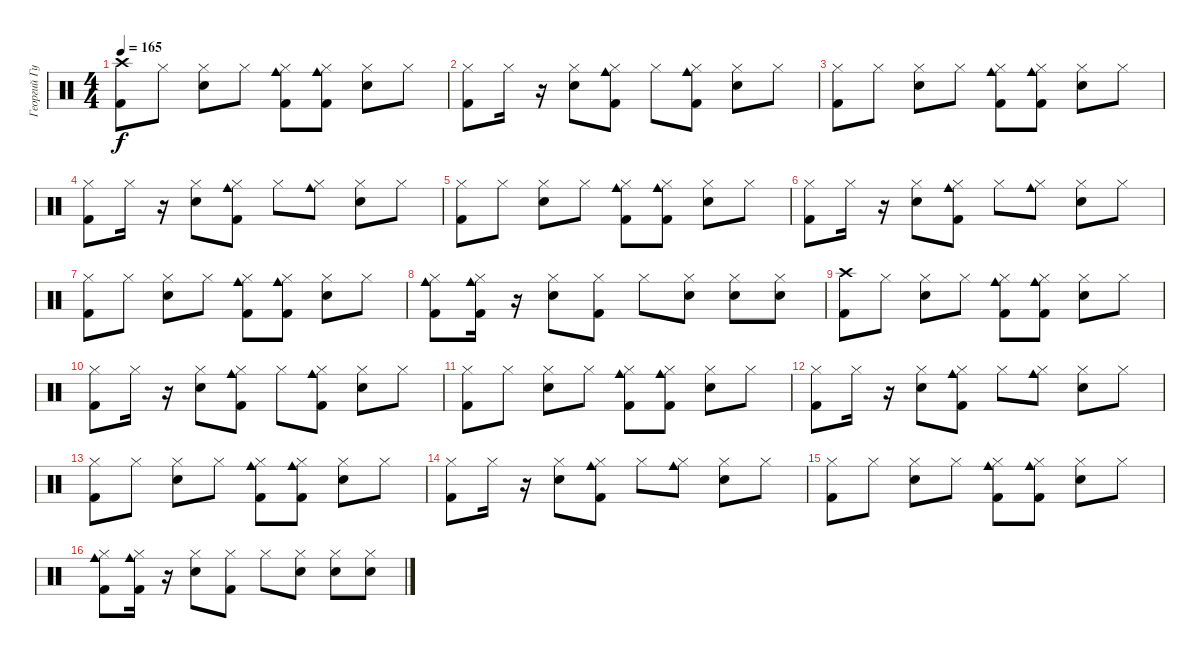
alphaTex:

\track ("Георгий Гурьянов" "Георгий Гу") {instrument percussion}
\staff {score}
\articulation defaults
\ts (4 4)
\tempo 165
\clef neutral
\ks c
("Crash high (hit)" "Kick (hit) 2").8{dy f} "Hi-Hat (closed)".8 ("Hi-Hat (closed)" "Snare (hit) 2").8 "Hi-Hat (closed)".8 ("Hi-Hat (closed)" "Cowbell medium (hit)" "Kick (hit) 2").8 ("Hi-Hat (closed)" "Cowbell medium (hit)" "Kick (hit) 2").8 ("Hi-Hat (closed)" "Snare (hit) 2").8 "Hi-Hat (closed)".8 |
("Hi-Hat (closed)" "Kick (hit) 2").8 "Hi-Hat (closed)".16 r.16 ("Hi-Hat (closed)" "Snare (hit) 2").8 ("Hi-Hat (closed)" "Kick (hit) 2" "Cowbell medium (hit)").8 "Hi-Hat (closed)".8 ("Hi-Hat (closed)" "Kick (hit) 2" "Cowbell medium (hit)").8 ("Hi-Hat (closed)" "Snare (hit) 2").8 "Hi-Hat (closed)".8 |
("Hi-Hat (closed)" "Kick (hit) 2").8 "Hi-Hat (closed)".8 ("Hi-Hat (closed)" "Snare (hit) 2").8 "Hi-Hat (closed)".8 ("Hi-Hat (closed)" "Cowbell medium (hit)" "Kick (hit) 2").8 ("Hi-Hat (closed)" "Cowbell medium (hit)" "Kick (hit) 2").8 ("Hi-Hat (closed)" "Snare (hit) 2").8 "Hi-Hat (closed)".8 |
("Hi-Hat (closed)" "Kick (hit) 2").8 "Hi-Hat (closed)".16 r.16 ("Hi-Hat (closed)" "Snare (hit) 2").8 ("Hi-Hat (closed)" "Kick (hit) 2" "Cowbell medium (hit)").8 "Hi-Hat (closed)".8 ("Hi-Hat (closed)" "Cowbell medium (hit)").8 ("Hi-Hat (closed)" "Snare (hit) 2").8 "Hi-Hat (closed)".8 |
("Hi-Hat (closed)" "Kick (hit) 2").8 "Hi-Hat (closed)".8 ("Hi-Hat (closed)" "Snare (hit) 2").8 "Hi-Hat (closed)".8 ("Hi-Hat (closed)" "Cowbell medium (hit)" "Kick (hit) 2").8 ("Hi-Hat (closed)" "Cowbell medium (hit)" "Kick (hit) 2").8 ("Hi-Hat (closed)" "Snare (hit) 2").8 "Hi-Hat (closed)".8 |
("Hi-Hat (closed)" "Kick (hit) 2").8 "Hi-Hat (closed)".16 r.16 ("Hi-Hat (closed)" "Snare (hit) 2").8 ("Hi-Hat (closed)" "Kick (hit) 2" "Cowbell medium (hit)").8 "Hi-Hat (closed)".8 ("Hi-Hat (closed)" "Cowbell medium (hit)").8 ("Hi-Hat (closed)" "Snare (hit) 2").8 "Hi-Hat (closed)".8 |
("Hi-Hat (closed)" "Kick (hit) 2").8 "Hi-Hat (closed)".8 ("Hi-Hat (closed)" "Snare (hit) 2").8 "Hi-Hat (closed)".8 ("Hi-Hat (closed)" "Cowbell medium (hit)" "Kick (hit) 2").8 ("Hi-Hat (closed)" "Cowbell medium (hit)" "Kick (hit) 2").8 ("Hi-Hat (closed)" "Snare (hit) 2").8 "Hi-Hat (closed)".8 |
("Cowbell medium (hit)" "Hi-Hat (closed)" "Kick (hit) 2").8 ("Cowbell medium (hit)" "Kick (hit) 2" "Hi-Hat (closed)").16 r.16 ("Hi-Hat (closed)" "Snare (hit) 2").8 ("Hi-Hat (closed)" "Kick (hit) 2").8 "Hi-Hat (closed)".8 ("Hi-Hat (closed)" "Snare (hit) 2").8 ("Hi-Hat (closed)" "Snare (hit) 2").8 ("Snare (hit) 2" "Hi-Hat (closed)").8 |
("Crash high (hit)" "Kick (hit) 2").8 "Hi-Hat (closed)".8 ("Hi-Hat (closed)" "Snare (hit) 2").8 "Hi-Hat (closed)".8{volume 12} ("Hi-Hat (closed)" "Cowbell medium (hit)" "Kick (hit) 2").8{volume 12} ("Hi-Hat (closed)" "Cowbell medium (hit)" "Kick (hit) 2").8{volume 12} ("Hi-Hat (closed)" "Snare (hit) 2").8{volume 12} "Hi-Hat (closed)".8{volume 12} |
("Hi-Hat (closed)" "Kick (hit) 2").8{volume 12} "Hi-Hat (closed)".16{volume 12} r.16 ("Hi-Hat (closed)" "Snare (hit) 2").8{volume 11} ("Hi-Hat (closed)" "Kick (hit) 2" "Cowbell medium (hit)").8{volume 11} "Hi-Hat (closed)".8 ("Hi-Hat (closed)" "Kick (hit) 2" "Cowbell medium (hit)").8{volume 11} ("Hi-Hat (closed)" "Snare (hit) 2").8{volume 11} "Hi-Hat (closed)".8{volume 11} |
("Hi-Hat (closed)" "Kick (hit) 2").8 "Hi-Hat (closed)".8{volume 10} ("Hi-Hat (closed)" "Snare (hit) 2").8 "Hi-Hat (closed)".8{volume 10} ("Hi-Hat (closed)" "Cowbell medium (hit)" "Kick (hit) 2").8{volume 10} ("Hi-Hat (closed)" "Cowbell medium (hit)" "Kick (hit) 2").8{volume 10} ("Hi-Hat (closed)" "Snare (hit) 2").8{volume 10} "Hi-Hat (closed)".8{volume 10} |
("Hi-Hat (closed)" "Kick (hit) 2").8{volume 10} "Hi-Hat (closed)".16{volume 10} r.16 ("Hi-Hat (closed)" "Snare (hit) 2").8{volume 10} ("Hi-Hat (closed)" "Kick (hit) 2" "Cowbell medium (hit)").8{volume 9} "Hi-Hat (closed)".8{volume 9} ("Hi-Hat (closed)" "Cowbell medium (hit)").8{volume 9} ("Hi-Hat (closed)" "Snare (hit) 2").8 "Hi-Hat (closed)".8{volume 9} |
("Hi-Hat (closed)" "Kick (hit) 2").8 "Hi-Hat (closed)".8{volume 8} ("Hi-Hat (closed)" "Snare (hit) 2").8{volume 8} "Hi-Hat (closed)".8{volume 8} ("Hi-Hat (closed)" "Cowbell medium (hit)" "Kick (hit) 2").8{volume 8} ("Hi-Hat (closed)" "Cowbell medium (hit)" "Kick (hit) 2").8{volume 8} ("Hi-Hat (closed)" "Snare (hit) 2").8{volume 8} "Hi-Hat (closed)".8{volume 8} |
("Hi-Hat (closed)" "Kick (hit) 2").8{volume 8} "Hi-Hat (closed)".16{volume 8} r.16 ("Hi-Hat (closed)" "Snare (hit) 2").8{volume 7} ("Hi-Hat (closed)" "Kick (hit) 2" "Cowbell medium (hit)").8{volume 7} "Hi-Hat (closed)".8{volume 7} ("Hi-Hat (closed)" "Cowbell medium (hit)").8{volume 7} ("Hi-Hat (closed)" "Snare (hit) 2").8 "Hi-Hat (closed)".8{volume 6} |
("Hi-Hat (closed)" "Kick (hit) 2").8{volume 6} "Hi-Hat (closed)".8{volume 5} ("Hi-Hat (closed)" "Snare (hit) 2").8{volume 4} "Hi-Hat (closed)".8{volume 4} ("Hi-Hat (closed)" "Cowbell medium (hit)" "Kick (hit) 2").8{volume 3} ("Hi-Hat (closed)" "Cowbell medium (hit)" "Kick (hit) 2").8{volume 2} ("Hi-Hat (closed)" "Snare (hit) 2").8{volume 2} "Hi-Hat (closed)".8{volume 1} |
("Cowbell medium (hit)" "Hi-Hat (closed)" "Kick (hit) 2").8{volume 0} ("Cowbell medium (hit)" "Kick (hit) 2" "Hi-Hat (closed)").16{volume 0} r.16 ("Hi-Hat (closed)" "Snare (hit) 2").8{volume 0} ("Hi-Hat (closed)" "Kick (hit) 2").8{volume 0} "Hi-Hat (closed)".8{volume 0} ("Hi-Hat (closed)" "Snare (hit) 2").8{volume 0} ("Hi-Hat (closed)" "Snare (hit) 2").8 ("Snare (hit) 2" "Hi-Hat (closed)").8
